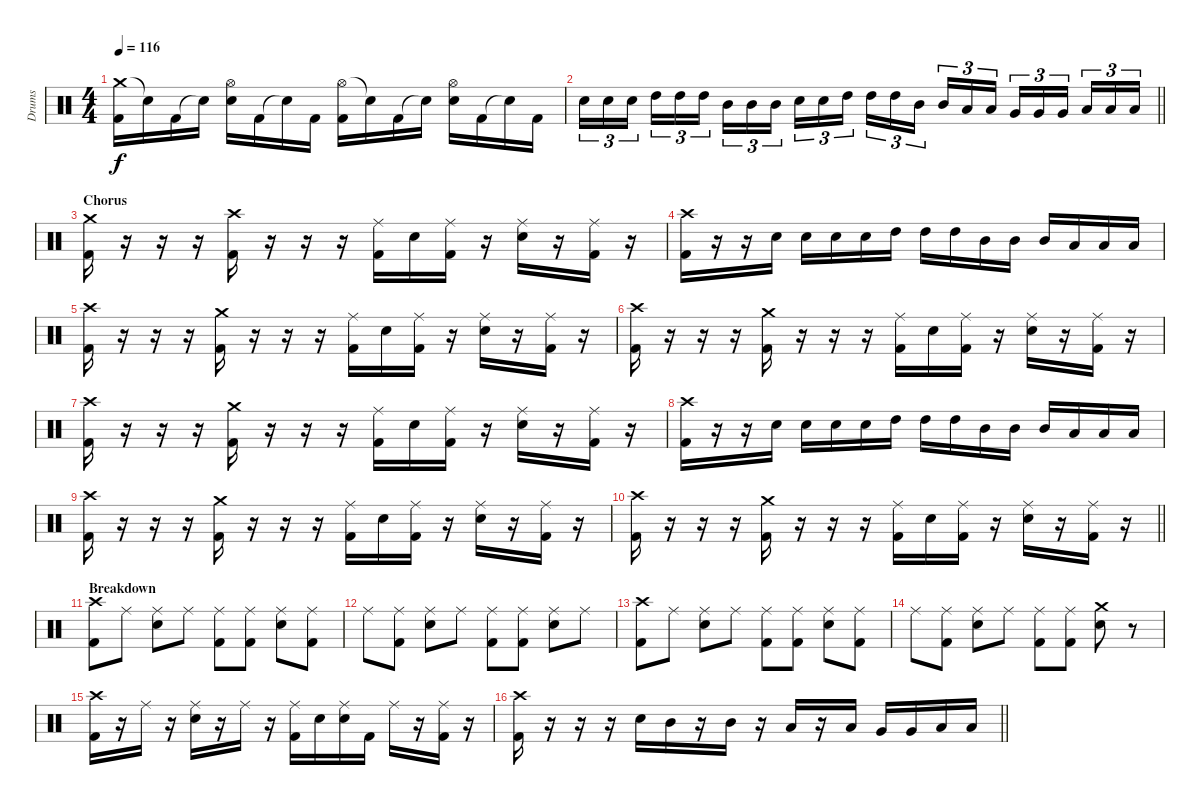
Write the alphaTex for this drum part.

\track ("Drums" "Drums") {instrument percussion}
\staff {score}
\articulation defaults
\ts (4 4)
\tempo 116
\clef neutral
\ks c
("Crash medium (hit)" "Kick (hit) 2").16{dy f} "Snare (hit)"{t}.16 "Kick (hit) 2".16 "Snare (hit)"{t}.16 ("Hi-Hat (open)" "Snare (hit) 2").16 "Kick (hit) 2".16 "Snare (hit)"{t}.16 "Kick (hit) 2".16 ("Hi-Hat (open)" "Kick (hit) 2").16 "Snare (hit)"{t}.16 "Kick (hit) 2".16 "Snare (hit)"{t}.16 ("Hi-Hat (open)" "Snare (hit) 2").16 "Kick (hit) 2".16 "Snare (hit)"{t}.16 "Kick (hit) 2".16 |
\barLineRight lightlight "Snare (hit) 2".16{tu (3 2)} "Snare (hit) 2".16{tu (3 2)} "Snare (hit) 2".16{tu (3 2) beam splitsecondary} "High Tom (hit)".16{tu (3 2)} "High Tom (hit)".16{tu (3 2)} "High Tom (hit)".16{tu (3 2)} "Mid Tom (hit)".16{tu (3 2)} "Mid Tom (hit)".16{tu (3 2)} "Mid Tom (hit)".16{tu (3 2) beam splitsecondary} "Snare (hit) 2".16{tu (3 2)} "Snare (hit) 2".16{tu (3 2)} "High Tom (hit)".16{tu (3 2)} "High Tom (hit)".16{tu (3 2)} "High Tom (hit)".16{tu (3 2)} "Mid Tom (hit)".16{tu (3 2) beam splitsecondary} "Mid Tom (hit)".16{tu (3 2)} "Low Tom (hit)".16{tu (3 2)} "Low Tom (hit)".16{tu (3 2)} "Very Low Tom (hit)".16{tu (3 2)} "Very Low Tom (hit)".16{tu (3 2)} "Very Low Tom (hit)".16{tu (3 2) beam splitsecondary} "Low Floor Tom (hit)".16{tu (3 2)} "Low Floor Tom (hit)".16{tu (3 2)} "Low Floor Tom (hit)".16{tu (3 2)}
|
\section ("" "Chorus")
("Crash medium (hit)" "Kick (hit) 2").16 r.16 r.16 r.16 ("Crash high (hit)" "Kick (hit) 2").16 r.16 r.16 r.16 ("Ride (middle)" "Kick (hit) 2").16 "Snare (hit) 2".16 ("Ride (middle)" "Kick (hit) 2").16 r.16 ("Ride (middle)" "Snare (hit) 2").16 r.16 ("Ride (middle)" "Kick (hit) 2").16 r.16 |
("Crash high (hit)" "Kick (hit) 2").16 r.16 r.16 "Snare (hit) 2".16 "Snare (hit) 2".16 "Snare (hit) 2".16 "Snare (hit) 2".16 "High Tom (hit)".16 "High Tom (hit)".16 "High Tom (hit)".16 "Mid Tom (hit)".16 "Mid Tom (hit)".16 "Mid Tom (hit)".16 "Low Tom (hit)".16 "Low Tom (hit)".16 "Low Tom (hit)".16 |
("Crash high (hit)" "Kick (hit) 2").16 r.16 r.16 r.16 ("Crash medium (hit)" "Kick (hit) 2").16 r.16 r.16 r.16 ("Ride (middle)" "Kick (hit) 2").16 "Snare (hit) 2".16 ("Ride (middle)" "Kick (hit) 2").16 r.16 ("Ride (middle)" "Snare (hit) 2").16 r.16 ("Ride (middle)" "Kick (hit) 2").16 r.16 |
("Crash high (hit)" "Kick (hit) 2").16 r.16 r.16 r.16 ("Crash medium (hit)" "Kick (hit) 2").16 r.16 r.16 r.16 ("Ride (middle)" "Kick (hit) 2").16 "Snare (hit) 2".16 ("Ride (middle)" "Kick (hit) 2").16 r.16 ("Ride (middle)" "Snare (hit) 2").16 r.16 ("Ride (middle)" "Kick (hit) 2").16 r.16 |
("Crash high (hit)" "Kick (hit) 2").16 r.16 r.16 r.16 ("Crash medium (hit)" "Kick (hit) 2").16 r.16 r.16 r.16 ("Ride (middle)" "Kick (hit) 2").16 "Snare (hit) 2".16 ("Ride (middle)" "Kick (hit) 2").16 r.16 ("Ride (middle)" "Snare (hit) 2").16 r.16 ("Ride (middle)" "Kick (hit) 2").16 r.16 |
("Crash high (hit)" "Kick (hit) 2").16 r.16 r.16 "Snare (hit) 2".16 "Snare (hit) 2".16 "Snare (hit) 2".16 "Snare (hit) 2".16 "High Tom (hit)".16 "High Tom (hit)".16 "High Tom (hit)".16 "Mid Tom (hit)".16 "Mid Tom (hit)".16 "Mid Tom (hit)".16 "Low Tom (hit)".16 "Low Tom (hit)".16 "Low Tom (hit)".16 |
("Crash high (hit)" "Kick (hit) 2").16 r.16 r.16 r.16 ("Crash medium (hit)" "Kick (hit) 2").16 r.16 r.16 r.16 ("Ride (middle)" "Kick (hit) 2").16 "Snare (hit) 2".16 ("Ride (middle)" "Kick (hit) 2").16 r.16 ("Ride (middle)" "Snare (hit) 2").16 r.16 ("Ride (middle)" "Kick (hit) 2").16 r.16 |
\barLineRight lightlight
("Crash high (hit)" "Kick (hit) 2").16 r.16 r.16 r.16 ("Crash medium (hit)" "Kick (hit) 2").16 r.16 r.16 r.16 ("Ride (middle)" "Kick (hit) 2").16 "Snare (hit) 2".16 ("Ride (middle)" "Kick (hit) 2").16 r.16 ("Ride (middle)" "Snare (hit) 2").16 r.16 ("Ride (middle)" "Kick (hit) 2").16 r.16 |
\section ("" "Breakdown")
("Crash high (hit)" "Kick (hit) 2").8 "Ride (middle)".8 ("Ride (middle)" "Snare (hit) 2").8 "Ride (middle)".8 ("Ride (middle)" "Kick (hit) 2").8 ("Ride (middle)" "Kick (hit) 2").8 ("Ride (middle)" "Snare (hit) 2").8 ("Ride (middle)" "Kick (hit) 2").8 |
"Ride (middle)".8 ("Ride (middle)" "Kick (hit) 2").8 ("Ride (middle)" "Snare (hit) 2").8 "Ride (middle)".8 ("Ride (middle)" "Kick (hit) 2").8 ("Ride (middle)" "Kick (hit) 2").8 ("Ride (middle)" "Snare (hit) 2").8 "Ride (middle)".8 |
("Crash high (hit)" "Kick (hit) 2").8 "Ride (middle)".8 ("Ride (middle)" "Snare (hit) 2").8 "Ride (middle)".8 ("Ride (middle)" "Kick (hit) 2").8 ("Ride (middle)" "Kick (hit) 2").8 ("Ride (middle)" "Snare (hit) 2").8 ("Ride (middle)" "Kick (hit) 2").8 |
"Ride (middle)".8 ("Ride (middle)" "Kick (hit) 2").8 ("Ride (middle)" "Snare (hit) 2").8 "Ride (middle)".8 ("Ride (middle)" "Kick (hit) 2").8 ("Ride (middle)" "Kick (hit) 2").8 ("Crash medium (hit)" "Snare (hit) 2").8 r.8 |
("Crash high (hit)" "Kick (hit) 2").16 r.16 "Ride (middle)".16 r.16 ("Ride (middle)" "Snare (hit) 2").16 r.16 "Ride (middle)".16 r.16 ("Ride (middle)" "Kick (hit) 2").16 "Snare (hit) 2".16 ("Ride (middle)" "Snare (hit) 2").16 "Kick (hit) 2".16 "Ride (middle)".16 r.16 ("Ride (middle)" "Kick (hit) 2").16 r.16 |
\barLineRight lightlight
("Crash high (hit)" "Kick (hit) 2").16 r.16 r.16 r.16 "Snare (hit) 2".16 "Mid Tom (hit)".16 r.16 "Mid Tom (hit)".16 r.16 "Low Tom (hit)".16 r.16 "Low Tom (hit)".16 "Very Low Tom (hit)".16 "Very Low Tom (hit)".16 "Low Floor Tom (hit)".16 "Low Floor Tom (hit)".16
